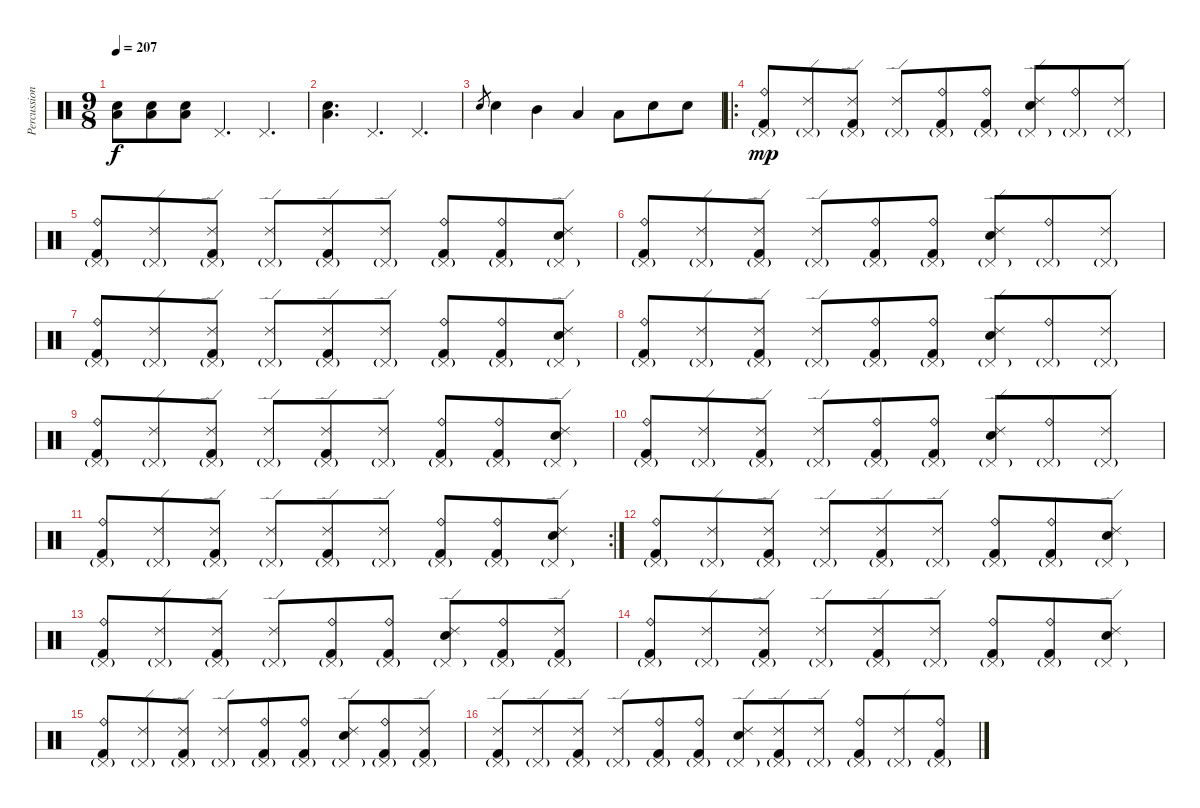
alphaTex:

\track ("Percussion" "Percussion") {instrument percussion}
\staff {score}
\articulation defaults
\ts (9 8)
\tempo 207
\clef neutral
\ks c
("Low Floor Tom (hit)" "Electric Snare (hit)").8{dy f} ("Low Floor Tom (hit)" "Electric Snare (hit)").8 ("Low Floor Tom (hit)" "Electric Snare (hit)").8 "Pedal Hi-Hat (hit)".4{d} "Pedal Hi-Hat (hit)".4{d} |
("Low Floor Tom (hit)" "Electric Snare (hit)").4{d} "Pedal Hi-Hat (hit)".4{d} "Pedal Hi-Hat (hit)".4{d} |
"Electric Snare (hit)".8{gr} "Electric Snare (hit)".4 "Mid Tom (hit)".4 "Low Tom (hit)".4 "Low Tom (hit)".8 "Electric Snare (hit)".8 "Electric Snare (hit)".8 |
\ro
("Ride (bell)" "Pedal Hi-Hat (hit)"{g} "Kick (hit) 2").8{dy mp} ("Ride (edge) 2" "Pedal Hi-Hat (hit)"{g}).8 ("Ride (edge) 2" "Pedal Hi-Hat (hit)"{g} "Kick (hit) 2").8 ("Ride (edge) 2" "Pedal Hi-Hat (hit)"{g}).8 ("Ride (bell)" "Pedal Hi-Hat (hit)"{g} "Kick (hit) 2").8 ("Ride (bell)" "Pedal Hi-Hat (hit)"{g} "Kick (hit) 2").8 ("Ride (edge) 2" "Pedal Hi-Hat (hit)"{g} "Electric Snare (hit)").8 ("Ride (bell)" "Pedal Hi-Hat (hit)"{g}).8 ("Ride (edge) 2" "Pedal Hi-Hat (hit)"{g}).8 |
("Ride (bell)" "Pedal Hi-Hat (hit)"{g} "Kick (hit) 2").8 ("Ride (edge) 2" "Pedal Hi-Hat (hit)"{g}).8 ("Ride (edge) 2" "Pedal Hi-Hat (hit)"{g} "Kick (hit) 2").8 ("Ride (edge) 2" "Pedal Hi-Hat (hit)"{g}).8 ("Ride (edge) 2" "Pedal Hi-Hat (hit)"{g} "Kick (hit) 2").8 ("Ride (edge) 2" "Pedal Hi-Hat (hit)"{g}).8 ("Ride (bell)" "Pedal Hi-Hat (hit)"{g} "Kick (hit) 2").8 ("Ride (bell)" "Pedal Hi-Hat (hit)"{g} "Kick (hit) 2").8 ("Ride (edge) 2" "Pedal Hi-Hat (hit)"{g} "Electric Snare (hit)").8 |
("Ride (bell)" "Pedal Hi-Hat (hit)"{g} "Kick (hit) 2").8 ("Ride (edge) 2" "Pedal Hi-Hat (hit)"{g}).8 ("Ride (edge) 2" "Pedal Hi-Hat (hit)"{g} "Kick (hit) 2").8 ("Ride (edge) 2" "Pedal Hi-Hat (hit)"{g}).8 ("Ride (bell)" "Pedal Hi-Hat (hit)"{g} "Kick (hit) 2").8 ("Ride (bell)" "Pedal Hi-Hat (hit)"{g} "Kick (hit) 2").8 ("Ride (edge) 2" "Pedal Hi-Hat (hit)"{g} "Electric Snare (hit)").8 ("Ride (bell)" "Pedal Hi-Hat (hit)"{g}).8 ("Ride (edge) 2" "Pedal Hi-Hat (hit)"{g}).8 |
("Ride (bell)" "Pedal Hi-Hat (hit)"{g} "Kick (hit) 2").8 ("Ride (edge) 2" "Pedal Hi-Hat (hit)"{g}).8 ("Ride (edge) 2" "Pedal Hi-Hat (hit)"{g} "Kick (hit) 2").8 ("Ride (edge) 2" "Pedal Hi-Hat (hit)"{g}).8 ("Ride (edge) 2" "Pedal Hi-Hat (hit)"{g} "Kick (hit) 2").8 ("Ride (edge) 2" "Pedal Hi-Hat (hit)"{g}).8 ("Ride (bell)" "Pedal Hi-Hat (hit)"{g} "Kick (hit) 2").8 ("Ride (bell)" "Pedal Hi-Hat (hit)"{g} "Kick (hit) 2").8 ("Ride (edge) 2" "Pedal Hi-Hat (hit)"{g} "Electric Snare (hit)").8 |
("Ride (bell)" "Pedal Hi-Hat (hit)"{g} "Kick (hit) 2").8 ("Ride (edge) 2" "Pedal Hi-Hat (hit)"{g}).8 ("Ride (edge) 2" "Pedal Hi-Hat (hit)"{g} "Kick (hit) 2").8 ("Ride (edge) 2" "Pedal Hi-Hat (hit)"{g}).8 ("Ride (bell)" "Pedal Hi-Hat (hit)"{g} "Kick (hit) 2").8 ("Ride (bell)" "Pedal Hi-Hat (hit)"{g} "Kick (hit) 2").8 ("Ride (edge) 2" "Pedal Hi-Hat (hit)"{g} "Electric Snare (hit)").8 ("Ride (bell)" "Pedal Hi-Hat (hit)"{g}).8 ("Ride (edge) 2" "Pedal Hi-Hat (hit)"{g}).8 |
("Ride (bell)" "Pedal Hi-Hat (hit)"{g} "Kick (hit) 2").8 ("Ride (edge) 2" "Pedal Hi-Hat (hit)"{g}).8 ("Ride (edge) 2" "Pedal Hi-Hat (hit)"{g} "Kick (hit) 2").8 ("Ride (edge) 2" "Pedal Hi-Hat (hit)"{g}).8 ("Ride (edge) 2" "Pedal Hi-Hat (hit)"{g} "Kick (hit) 2").8 ("Ride (edge) 2" "Pedal Hi-Hat (hit)"{g}).8 ("Ride (bell)" "Pedal Hi-Hat (hit)"{g} "Kick (hit) 2").8 ("Ride (bell)" "Pedal Hi-Hat (hit)"{g} "Kick (hit) 2").8 ("Ride (edge) 2" "Pedal Hi-Hat (hit)"{g} "Electric Snare (hit)").8 |
("Ride (bell)" "Pedal Hi-Hat (hit)"{g} "Kick (hit) 2").8 ("Ride (edge) 2" "Pedal Hi-Hat (hit)"{g}).8 ("Ride (edge) 2" "Pedal Hi-Hat (hit)"{g} "Kick (hit) 2").8 ("Ride (edge) 2" "Pedal Hi-Hat (hit)"{g}).8 ("Ride (bell)" "Pedal Hi-Hat (hit)"{g} "Kick (hit) 2").8 ("Ride (bell)" "Pedal Hi-Hat (hit)"{g} "Kick (hit) 2").8 ("Ride (edge) 2" "Pedal Hi-Hat (hit)"{g} "Electric Snare (hit)").8 ("Ride (bell)" "Pedal Hi-Hat (hit)"{g}).8 ("Ride (edge) 2" "Pedal Hi-Hat (hit)"{g}).8 |
\rc 2
("Ride (bell)" "Pedal Hi-Hat (hit)"{g} "Kick (hit) 2").8 ("Ride (edge) 2" "Pedal Hi-Hat (hit)"{g}).8 ("Ride (edge) 2" "Pedal Hi-Hat (hit)"{g} "Kick (hit) 2").8 ("Ride (edge) 2" "Pedal Hi-Hat (hit)"{g}).8 ("Ride (edge) 2" "Pedal Hi-Hat (hit)"{g} "Kick (hit) 2").8 ("Ride (edge) 2" "Pedal Hi-Hat (hit)"{g}).8 ("Ride (bell)" "Pedal Hi-Hat (hit)"{g} "Kick (hit) 2").8 ("Ride (bell)" "Pedal Hi-Hat (hit)"{g} "Kick (hit) 2").8 ("Ride (edge) 2" "Pedal Hi-Hat (hit)"{g} "Electric Snare (hit)").8 |
("Ride (bell)" "Pedal Hi-Hat (hit)"{g} "Kick (hit) 2").8 ("Ride (edge) 2" "Pedal Hi-Hat (hit)"{g}).8 ("Ride (edge) 2" "Pedal Hi-Hat (hit)"{g} "Kick (hit) 2").8 ("Ride (edge) 2" "Pedal Hi-Hat (hit)"{g}).8 ("Ride (edge) 2" "Pedal Hi-Hat (hit)"{g} "Kick (hit) 2").8 ("Ride (edge) 2" "Pedal Hi-Hat (hit)"{g}).8 ("Ride (bell)" "Pedal Hi-Hat (hit)"{g} "Kick (hit) 2").8 ("Ride (bell)" "Pedal Hi-Hat (hit)"{g} "Kick (hit) 2").8 ("Ride (edge) 2" "Pedal Hi-Hat (hit)"{g} "Electric Snare (hit)").8 |
("Ride (bell)" "Pedal Hi-Hat (hit)"{g} "Kick (hit) 2").8 ("Ride (edge) 2" "Pedal Hi-Hat (hit)"{g}).8 ("Ride (edge) 2" "Pedal Hi-Hat (hit)"{g} "Kick (hit) 2").8 ("Ride (edge) 2" "Pedal Hi-Hat (hit)"{g}).8 ("Ride (bell)" "Pedal Hi-Hat (hit)"{g} "Kick (hit) 2").8 ("Ride (bell)" "Pedal Hi-Hat (hit)"{g} "Kick (hit) 2").8 ("Ride (edge) 2" "Pedal Hi-Hat (hit)"{g} "Electric Snare (hit)").8 ("Ride (bell)" "Pedal Hi-Hat (hit)"{g} "Kick (hit) 2").8 ("Ride (edge) 2" "Pedal Hi-Hat (hit)"{g} "Kick (hit) 2").8 |
("Ride (bell)" "Pedal Hi-Hat (hit)"{g} "Kick (hit) 2").8 ("Ride (edge) 2" "Pedal Hi-Hat (hit)"{g}).8 ("Ride (edge) 2" "Pedal Hi-Hat (hit)"{g} "Kick (hit) 2").8 ("Ride (edge) 2" "Pedal Hi-Hat (hit)"{g}).8 ("Ride (edge) 2" "Pedal Hi-Hat (hit)"{g} "Kick (hit) 2").8 ("Ride (edge) 2" "Pedal Hi-Hat (hit)"{g}).8 ("Ride (bell)" "Pedal Hi-Hat (hit)"{g} "Kick (hit) 2").8 ("Ride (bell)" "Pedal Hi-Hat (hit)"{g} "Kick (hit) 2").8 ("Ride (edge) 2" "Pedal Hi-Hat (hit)"{g} "Electric Snare (hit)").8 |
("Ride (bell)" "Pedal Hi-Hat (hit)"{g} "Kick (hit) 2").8 ("Ride (edge) 2" "Pedal Hi-Hat (hit)"{g}).8 ("Ride (edge) 2" "Pedal Hi-Hat (hit)"{g} "Kick (hit) 2").8 ("Ride (edge) 2" "Pedal Hi-Hat (hit)"{g}).8 ("Ride (bell)" "Pedal Hi-Hat (hit)"{g} "Kick (hit) 2").8 ("Ride (bell)" "Pedal Hi-Hat (hit)"{g} "Kick (hit) 2").8 ("Ride (edge) 2" "Pedal Hi-Hat (hit)"{g} "Electric Snare (hit)").8 ("Ride (bell)" "Pedal Hi-Hat (hit)"{g} "Kick (hit) 2").8 ("Ride (edge) 2" "Pedal Hi-Hat (hit)"{g} "Kick (hit) 2").8 |
("Ride (edge) 2" "Pedal Hi-Hat (hit)"{g} "Kick (hit) 2").8 ("Ride (edge) 2" "Pedal Hi-Hat (hit)"{g}).8 ("Ride (edge) 2" "Pedal Hi-Hat (hit)"{g} "Kick (hit) 2").8 ("Ride (edge) 2" "Pedal Hi-Hat (hit)"{g}).8 ("Ride (bell)" "Pedal Hi-Hat (hit)"{g} "Kick (hit) 2").8 ("Ride (bell)" "Pedal Hi-Hat (hit)"{g} "Kick (hit) 2").8 ("Ride (edge) 2" "Pedal Hi-Hat (hit)"{g} "Electric Snare (hit)").8 ("Ride (edge) 2" "Pedal Hi-Hat (hit)"{g} "Kick (hit) 2").8 ("Ride (edge) 2" "Pedal Hi-Hat (hit)"{g}).8 ("Ride (bell)" "Pedal Hi-Hat (hit)"{g} "Kick (hit) 2").8 ("Ride (edge) 2" "Pedal Hi-Hat (hit)"{g}).8 ("Ride (bell)" "Pedal Hi-Hat (hit)"{g} "Kick (hit) 2").8
